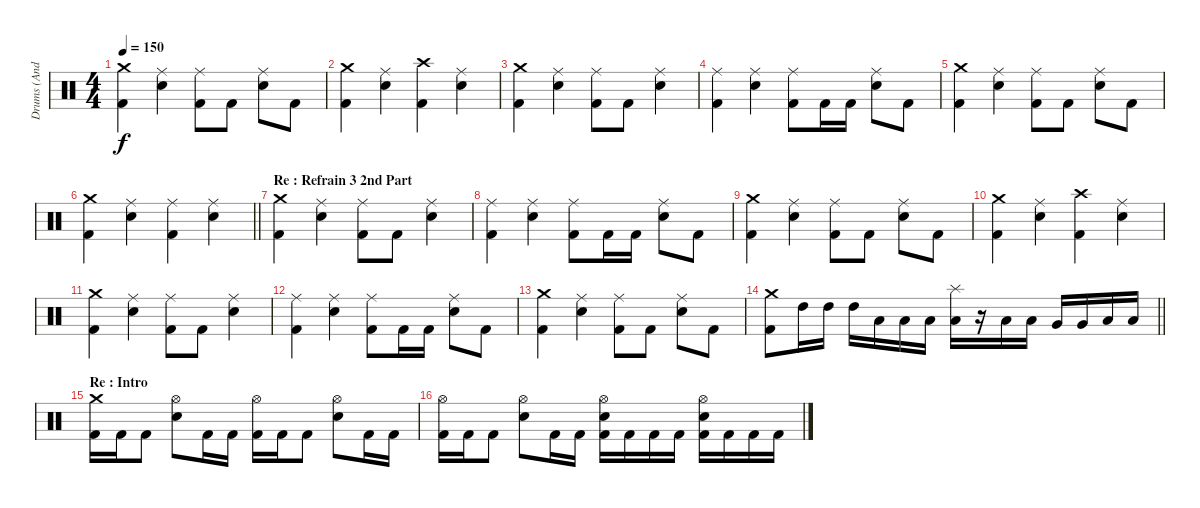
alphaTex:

\track ("Drums (Andy C)" "Drums (And") {instrument percussion}
\staff
\articulation defaults
\ts (4 4)
\tempo 150
\clef neutral
\ks c
("Crash medium (hit)" "Kick (hit) 2").4{dy f} ("Ride (middle)" "Electric Snare (hit)").4 ("Ride (middle)" "Kick (hit) 2").8 "Kick (hit) 2".8 ("Ride (middle)" "Electric Snare (hit)").8 "Kick (hit) 2".8 |
("Crash medium (hit)" "Kick (hit) 2").4 ("Ride (middle)" "Electric Snare (hit)").4 ("Crash high (hit)" "Kick (hit) 2").4 ("Ride (middle)" "Electric Snare (hit)").4 |
("Crash medium (hit)" "Kick (hit) 2").4 ("Ride (middle)" "Electric Snare (hit)").4 ("Ride (middle)" "Kick (hit) 2").8 "Kick (hit) 2".8 ("Ride (middle)" "Electric Snare (hit)").4 |
("Ride (middle)" "Kick (hit) 2").4 ("Ride (middle)" "Electric Snare (hit)").4 ("Ride (middle)" "Kick (hit) 2").8 "Kick (hit) 2".16 "Kick (hit) 2".16 ("Ride (middle)" "Electric Snare (hit)").8 "Kick (hit) 2".8 |
("Crash medium (hit)" "Kick (hit) 2").4 ("Ride (middle)" "Electric Snare (hit)").4 ("Ride (middle)" "Kick (hit) 2").8 "Kick (hit) 2".8 ("Ride (middle)" "Electric Snare (hit)").8 "Kick (hit) 2".8 |
\barLineRight lightlight
("Crash medium (hit)" "Kick (hit) 2").4 ("Ride (middle)" "Electric Snare (hit)").4 ("Ride (middle)" "Kick (hit) 2").4 ("Ride (middle)" "Electric Snare (hit)").4 |
\section ("" "Re : Refrain 3 2nd Part")
("Crash medium (hit)" "Kick (hit) 2").4 ("Ride (middle)" "Electric Snare (hit)").4 ("Ride (middle)" "Kick (hit) 2").8 "Kick (hit) 2".8 ("Ride (middle)" "Electric Snare (hit)").4 |
("Ride (middle)" "Kick (hit) 2").4 ("Ride (middle)" "Electric Snare (hit)").4 ("Ride (middle)" "Kick (hit) 2").8 "Kick (hit) 2".16 "Kick (hit) 2".16 ("Ride (middle)" "Electric Snare (hit)").8 "Kick (hit) 2".8 |
("Crash medium (hit)" "Kick (hit) 2").4 ("Ride (middle)" "Electric Snare (hit)").4 ("Ride (middle)" "Kick (hit) 2").8 "Kick (hit) 2".8 ("Ride (middle)" "Electric Snare (hit)").8 "Kick (hit) 2".8 |
("Crash medium (hit)" "Kick (hit) 2").4 ("Ride (middle)" "Electric Snare (hit)").4 ("Crash high (hit)" "Kick (hit) 2").4 ("Ride (middle)" "Electric Snare (hit)").4 |
("Crash medium (hit)" "Kick (hit) 2").4 ("Ride (middle)" "Electric Snare (hit)").4 ("Ride (middle)" "Kick (hit) 2").8 "Kick (hit) 2".8 ("Ride (middle)" "Electric Snare (hit)").4 |
("Ride (middle)" "Kick (hit) 2").4 ("Ride (middle)" "Electric Snare (hit)").4 ("Ride (middle)" "Kick (hit) 2").8 "Kick (hit) 2".16 "Kick (hit) 2".16 ("Ride (middle)" "Electric Snare (hit)").8 "Kick (hit) 2".8 |
("Crash medium (hit)" "Kick (hit) 2").4 ("Ride (middle)" "Electric Snare (hit)").4 ("Ride (middle)" "Kick (hit) 2").8 "Kick (hit) 2".8 ("Ride (middle)" "Electric Snare (hit)").8 "Kick (hit) 2".8 |
\barLineRight lightlight
("Crash medium (hit)" "Kick (hit) 2").8 "High Tom (hit)".16 "High Tom (hit)".16 "High Tom (hit)".16 "Low Tom (hit)".16 "Low Tom (hit)".16 "Low Tom (hit)".16 ("Splash (hit)" "Low Tom (hit)").16 r.16 "Low Tom (hit)".16 "Low Tom (hit)".16 "Very Low Tom (hit)".16 "Very Low Tom (hit)".16 "Low Floor Tom (hit)".16 "Low Floor Tom (hit)".16 |
\section ("" "Re : Intro")
("Crash medium (hit)" "Kick (hit) 2").16 "Kick (hit) 2".16 "Kick (hit) 2".8 ("Hi-Hat (open)" "Electric Snare (hit)").8 "Kick (hit) 2".16 "Kick (hit) 2".16 ("Hi-Hat (open)" "Kick (hit) 2").16 "Kick (hit) 2".16 "Kick (hit) 2".8 ("Hi-Hat (open)" "Electric Snare (hit)").8 "Kick (hit) 2".16 "Kick (hit) 2".16 |
("Hi-Hat (open)" "Kick (hit) 2").16 "Kick (hit) 2".16 "Kick (hit) 2".8 ("Hi-Hat (open)" "Electric Snare (hit)").8 "Kick (hit) 2".16 "Kick (hit) 2".16 ("Hi-Hat (open)" "Kick (hit) 2" "Electric Snare (hit)").16 "Kick (hit) 2".16 "Kick (hit) 2".16 "Kick (hit) 2".16 ("Hi-Hat (open)" "Kick (hit) 2" "Electric Snare (hit)").16 "Kick (hit) 2".16 "Kick (hit) 2".16 "Kick (hit) 2".16
